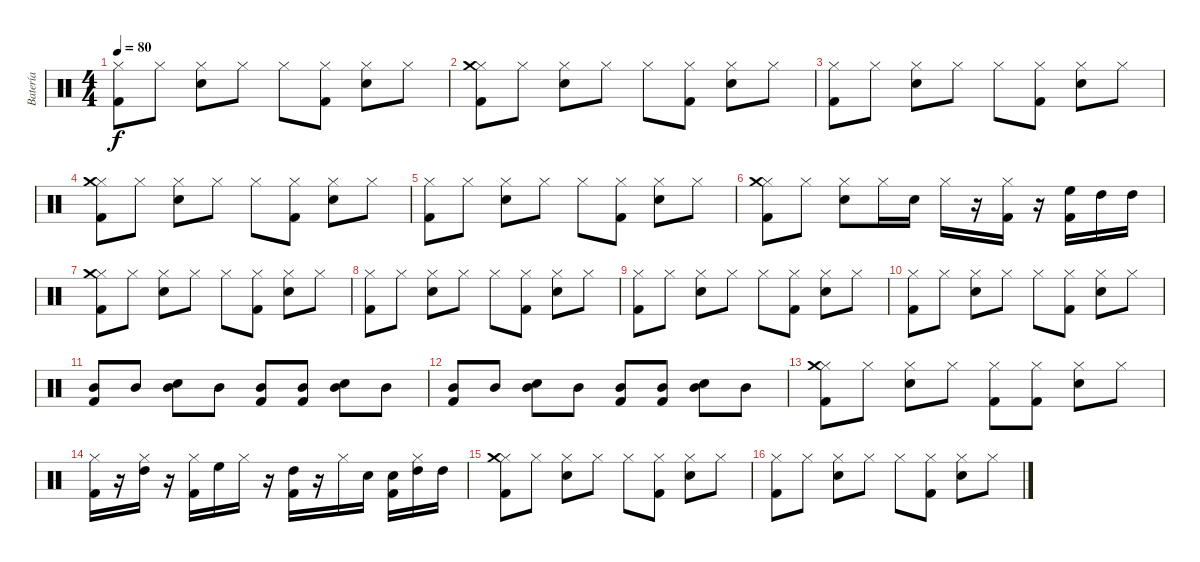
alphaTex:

\track ("Batería" "Batería") {instrument percussion}
\staff {score}
\articulation defaults
\ts (4 4)
\tempo 80
\clef neutral
\ks c
("Hi-Hat (closed)" "Kick (hit) 2").8{dy f} "Hi-Hat (closed)".8 ("Hi-Hat (closed)" "Snare (hit) 2").8 "Hi-Hat (closed)".8 "Hi-Hat (closed)".8 ("Hi-Hat (closed)" "Kick (hit) 2").8 ("Hi-Hat (closed)" "Snare (hit) 2").8 "Hi-Hat (closed)".8 |
("Hi-Hat (closed)" "Kick (hit) 2" "Crash medium (hit)").8 "Hi-Hat (closed)".8 ("Hi-Hat (closed)" "Snare (hit) 2").8 "Hi-Hat (closed)".8 "Hi-Hat (closed)".8 ("Hi-Hat (closed)" "Kick (hit) 2").8 ("Hi-Hat (closed)" "Snare (hit) 2").8 "Hi-Hat (closed)".8 |
("Hi-Hat (closed)" "Kick (hit) 2").8 "Hi-Hat (closed)".8 ("Hi-Hat (closed)" "Snare (hit) 2").8 "Hi-Hat (closed)".8 "Hi-Hat (closed)".8 ("Hi-Hat (closed)" "Kick (hit) 2").8 ("Hi-Hat (closed)" "Snare (hit) 2").8 "Hi-Hat (closed)".8 |
("Hi-Hat (closed)" "Kick (hit) 2" "Crash medium (hit)").8 "Hi-Hat (closed)".8 ("Hi-Hat (closed)" "Snare (hit) 2").8 "Hi-Hat (closed)".8 "Hi-Hat (closed)".8 ("Hi-Hat (closed)" "Kick (hit) 2").8 ("Hi-Hat (closed)" "Snare (hit) 2").8 "Hi-Hat (closed)".8 |
("Hi-Hat (closed)" "Kick (hit) 2").8 "Hi-Hat (closed)".8 ("Hi-Hat (closed)" "Snare (hit) 2").8 "Hi-Hat (closed)".8 "Hi-Hat (closed)".8 ("Hi-Hat (closed)" "Kick (hit) 2").8 ("Hi-Hat (closed)" "Snare (hit) 2").8 "Hi-Hat (closed)".8 |
("Hi-Hat (closed)" "Kick (hit) 2" "Crash medium (hit)").8 "Hi-Hat (closed)".8 ("Hi-Hat (closed)" "Snare (hit) 2").8 "Hi-Hat (closed)".16 "Snare (hit) 2".16 "Hi-Hat (closed)".16 r.16 ("Hi-Hat (closed)" "Kick (hit) 2").16 r.16 ("High Floor Tom (hit)" "Kick (hit) 2").16 "High Tom (hit)".16 "High Tom (hit)".16 |
("Hi-Hat (closed)" "Kick (hit) 2" "Crash medium (hit)").8 "Hi-Hat (closed)".8 ("Hi-Hat (closed)" "Snare (hit) 2").8 "Hi-Hat (closed)".8 "Hi-Hat (closed)".8 ("Hi-Hat (closed)" "Kick (hit) 2").8 ("Hi-Hat (closed)" "Snare (hit) 2").8 "Hi-Hat (closed)".8 |
("Hi-Hat (closed)" "Kick (hit) 2").8 "Hi-Hat (closed)".8 ("Hi-Hat (closed)" "Snare (hit) 2").8 "Hi-Hat (closed)".8 "Hi-Hat (closed)".8 ("Hi-Hat (closed)" "Kick (hit) 2").8 ("Hi-Hat (closed)" "Snare (hit) 2").8 "Hi-Hat (closed)".8 |
("Hi-Hat (closed)" "Kick (hit) 2").8 "Hi-Hat (closed)".8 ("Hi-Hat (closed)" "Snare (hit) 2").8 "Hi-Hat (closed)".8 "Hi-Hat (closed)".8 ("Hi-Hat (closed)" "Kick (hit) 2").8 ("Hi-Hat (closed)" "Snare (hit) 2").8 "Hi-Hat (closed)".8 |
("Hi-Hat (closed)" "Kick (hit) 2").8 "Hi-Hat (closed)".8 ("Hi-Hat (closed)" "Snare (hit) 2").8 "Hi-Hat (closed)".8 "Hi-Hat (closed)".8 ("Hi-Hat (closed)" "Kick (hit) 2").8 ("Hi-Hat (closed)" "Snare (hit) 2").8 "Hi-Hat (closed)".8 |
("Mid Tom (hit)" "Kick (hit) 2").8 "Mid Tom (hit)".8 ("Mid Tom (hit)" "Snare (hit) 2").8 "Mid Tom (hit)".8 ("Mid Tom (hit)" "Kick (hit) 2").8 ("Mid Tom (hit)" "Kick (hit) 2").8 ("Mid Tom (hit)" "Snare (hit) 2").8 "Mid Tom (hit)".8 |
("Mid Tom (hit)" "Kick (hit) 2").8 "Mid Tom (hit)".8 ("Mid Tom (hit)" "Snare (hit) 2").8 "Mid Tom (hit)".8 ("Mid Tom (hit)" "Kick (hit) 2").8 ("Mid Tom (hit)" "Kick (hit) 2").8 ("Mid Tom (hit)" "Snare (hit) 2").8 "Mid Tom (hit)".8 |
("Hi-Hat (closed)" "Kick (hit) 2" "Crash medium (hit)").8 "Hi-Hat (closed)".8 ("Hi-Hat (closed)" "Snare (hit) 2").8 "Hi-Hat (closed)".8 ("Hi-Hat (closed)" "Kick (hit) 2").8 ("Hi-Hat (closed)" "Kick (hit) 2").8 ("Hi-Hat (closed)" "Snare (hit) 2").8 "Hi-Hat (closed)".8 |
("Hi-Hat (closed)" "Kick (hit) 2").16 r.16 ("Hi-Hat (closed)" "High Tom (hit)").16 r.16 ("Hi-Hat (closed)" "Kick (hit) 2").16 "High Floor Tom (hit)".16 "Hi-Hat (closed)".16 r.16 ("High Tom (hit)" "Kick (hit) 2").16 r.16 "Hi-Hat (closed)".16 "Snare (hit) 2".16 ("Snare (hit) 2" "Kick (hit) 2").16 ("Hi-Hat (closed)" "High Tom (hit)").16 "High Tom (hit)".16 |
("Hi-Hat (closed)" "Kick (hit) 2" "Crash medium (hit)").8 "Hi-Hat (closed)".8 ("Hi-Hat (closed)" "Snare (hit) 2").8 "Hi-Hat (closed)".8 "Hi-Hat (closed)".8 ("Hi-Hat (closed)" "Kick (hit) 2").8 ("Hi-Hat (closed)" "Snare (hit) 2").8 "Hi-Hat (closed)".8 |
("Hi-Hat (closed)" "Kick (hit) 2").8 "Hi-Hat (closed)".8 ("Hi-Hat (closed)" "Snare (hit) 2").8 "Hi-Hat (closed)".8 "Hi-Hat (closed)".8 ("Hi-Hat (closed)" "Kick (hit) 2").8 ("Hi-Hat (closed)" "Snare (hit) 2").8 "Hi-Hat (closed)".8
